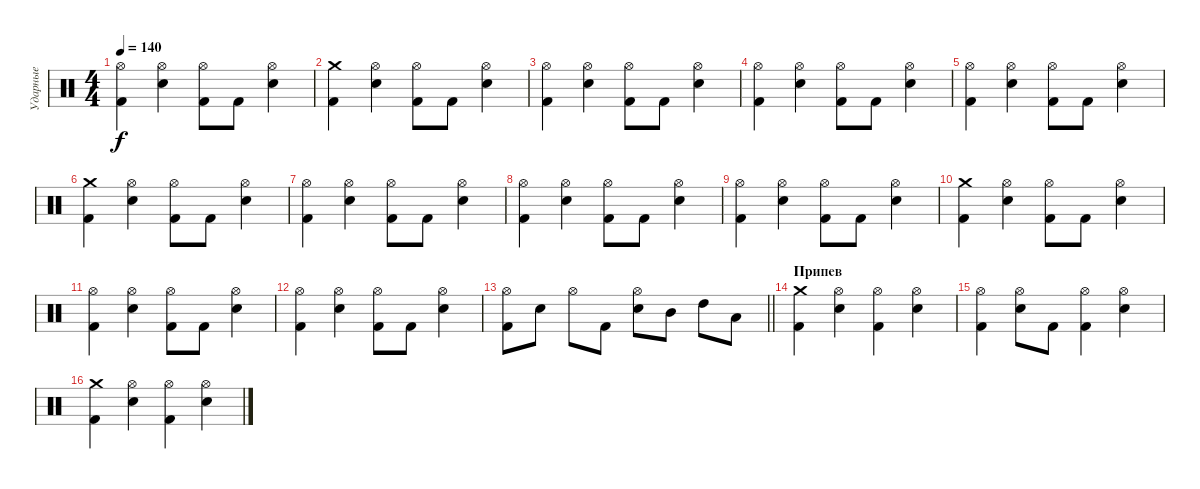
\track ("Ударные" "Ударные") {instrument percussion}
\staff {score}
\articulation defaults
\ts (4 4)
\tempo 140
\clef neutral
\ks c
("Hi-Hat (open)" "Kick (hit) 2").4{dy f} ("Hi-Hat (open)" "Snare (hit) 2").4 ("Hi-Hat (open)" "Kick (hit) 2").8 "Kick (hit) 2".8 ("Snare (hit) 2" "Hi-Hat (open)").4 |
("Crash medium (hit)" "Kick (hit) 2").4 ("Hi-Hat (open)" "Snare (hit) 2").4 ("Hi-Hat (open)" "Kick (hit) 2").8 "Kick (hit) 2".8 ("Snare (hit) 2" "Hi-Hat (open)").4 |
("Hi-Hat (open)" "Kick (hit) 2").4 ("Hi-Hat (open)" "Snare (hit) 2").4 ("Hi-Hat (open)" "Kick (hit) 2").8 "Kick (hit) 2".8 ("Snare (hit) 2" "Hi-Hat (open)").4 |
("Hi-Hat (open)" "Kick (hit) 2").4 ("Hi-Hat (open)" "Snare (hit) 2").4 ("Hi-Hat (open)" "Kick (hit) 2").8 "Kick (hit) 2".8 ("Snare (hit) 2" "Hi-Hat (open)").4 |
("Hi-Hat (open)" "Kick (hit) 2").4 ("Hi-Hat (open)" "Snare (hit) 2").4 ("Hi-Hat (open)" "Kick (hit) 2").8 "Kick (hit) 2".8 ("Snare (hit) 2" "Hi-Hat (open)").4 |
("Crash medium (hit)" "Kick (hit) 2").4 ("Hi-Hat (open)" "Snare (hit) 2").4 ("Hi-Hat (open)" "Kick (hit) 2").8 "Kick (hit) 2".8 ("Snare (hit) 2" "Hi-Hat (open)").4 |
("Hi-Hat (open)" "Kick (hit) 2").4 ("Hi-Hat (open)" "Snare (hit) 2").4 ("Hi-Hat (open)" "Kick (hit) 2").8 "Kick (hit) 2".8 ("Snare (hit) 2" "Hi-Hat (open)").4 |
("Hi-Hat (open)" "Kick (hit) 2").4 ("Hi-Hat (open)" "Snare (hit) 2").4 ("Hi-Hat (open)" "Kick (hit) 2").8 "Kick (hit) 2".8 ("Snare (hit) 2" "Hi-Hat (open)").4 |
("Hi-Hat (open)" "Kick (hit) 2").4 ("Hi-Hat (open)" "Snare (hit) 2").4 ("Hi-Hat (open)" "Kick (hit) 2").8 "Kick (hit) 2".8 ("Snare (hit) 2" "Hi-Hat (open)").4 |
("Crash medium (hit)" "Kick (hit) 2").4 ("Hi-Hat (open)" "Snare (hit) 2").4 ("Hi-Hat (open)" "Kick (hit) 2").8 "Kick (hit) 2".8 ("Snare (hit) 2" "Hi-Hat (open)").4 |
("Hi-Hat (open)" "Kick (hit) 2").4 ("Hi-Hat (open)" "Snare (hit) 2").4 ("Hi-Hat (open)" "Kick (hit) 2").8 "Kick (hit) 2".8 ("Snare (hit) 2" "Hi-Hat (open)").4 |
("Hi-Hat (open)" "Kick (hit) 2").4 ("Hi-Hat (open)" "Snare (hit) 2").4 ("Hi-Hat (open)" "Kick (hit) 2").8 "Kick (hit) 2".8 ("Snare (hit) 2" "Hi-Hat (open)").4 |
\barLineRight lightlight
("Kick (hit) 2" "Hi-Hat (open)").8 "Snare (hit) 2".8 "Hi-Hat (open)".8 "Kick (hit) 2".8 ("Snare (hit) 2" "Hi-Hat (open)").8 "Mid Tom (hit)".8 "High Tom (hit)".8 "Low Tom (hit)".8 |
\section ("" "Припев")
("Crash medium (hit)" "Kick (hit) 2").4 ("Hi-Hat (open)" "Snare (hit) 2").4 ("Hi-Hat (open)" "Kick (hit) 2").4 ("Snare (hit) 2" "Hi-Hat (open)").4 |
("Hi-Hat (open)" "Kick (hit) 2").4 ("Hi-Hat (open)" "Snare (hit) 2").8 "Kick (hit) 2".8 ("Hi-Hat (open)" "Kick (hit) 2").4 ("Snare (hit) 2" "Hi-Hat (open)").4 |
("Crash medium (hit)" "Kick (hit) 2").4 ("Hi-Hat (open)" "Snare (hit) 2").4 ("Hi-Hat (open)" "Kick (hit) 2").4 ("Snare (hit) 2" "Hi-Hat (open)").4
